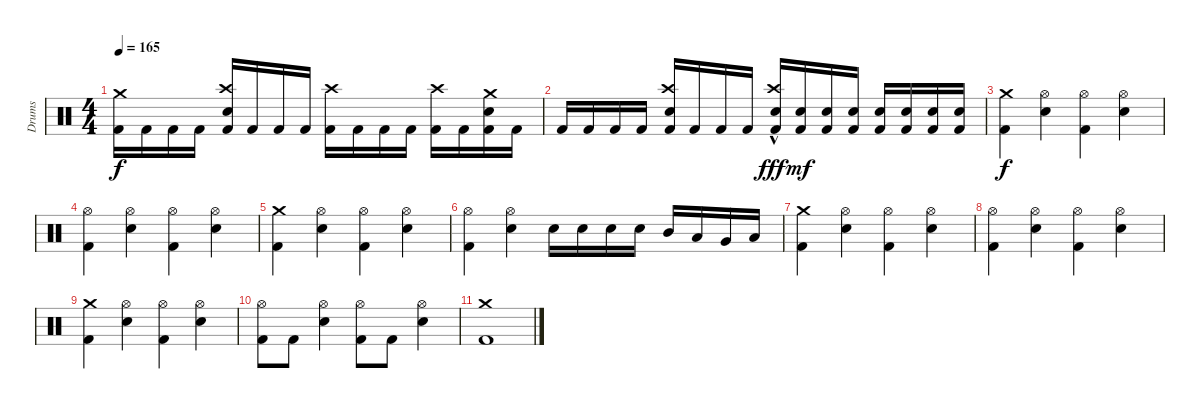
\track ("Drums" "Drums") {instrument percussion}
\staff {score}
\articulation defaults
\ts (4 4)
\tempo 165
\clef neutral
\ks c
("Crash medium (hit)" "Kick (hit) 2").16{dy f} "Kick (hit) 2".16 "Kick (hit) 2".16 "Kick (hit) 2".16 ("Crash high (hit)" "Electric Snare (hit)" "Kick (hit) 2").16 "Kick (hit) 2".16 "Kick (hit) 2".16 "Kick (hit) 2".16 ("Crash high (hit)" "Kick (hit) 2").16 "Kick (hit) 2".16 "Kick (hit) 2".16 "Kick (hit) 2".16 ("Crash high (hit)" "Kick (hit) 2").16 "Kick (hit) 2".16 ("Crash medium (hit)" "Electric Snare (hit)" "Kick (hit) 2").16 "Kick (hit) 2".16 |
"Kick (hit) 2".16 "Kick (hit) 2".16 "Kick (hit) 2".16 "Kick (hit) 2".16 ("Crash high (hit)" "Electric Snare (hit)" "Kick (hit) 2").16 "Kick (hit) 2".16 "Kick (hit) 2".16 "Kick (hit) 2".16 ("Crash high (hit)" "Electric Snare (hit)"{hac} "Kick (hit) 2").16{dy fff} ("Electric Snare (hit)" "Kick (hit) 2").16{dy mf} ("Electric Snare (hit)" "Kick (hit) 2").16 ("Electric Snare (hit)" "Kick (hit) 2").16 ("Electric Snare (hit)" "Kick (hit) 2").16 ("Electric Snare (hit)" "Kick (hit) 2").16 ("Electric Snare (hit)" "Kick (hit) 2").16 ("Electric Snare (hit)" "Kick (hit) 2").16 |
("Crash medium (hit)" "Kick (hit) 2").4{dy f} ("Hi-Hat (open)" "Electric Snare (hit)").4 ("Hi-Hat (open)" "Kick (hit) 2").4 ("Hi-Hat (open)" "Electric Snare (hit)").4 |
("Hi-Hat (open)" "Kick (hit) 2").4 ("Hi-Hat (open)" "Electric Snare (hit)").4 ("Hi-Hat (open)" "Kick (hit) 2").4 ("Hi-Hat (open)" "Electric Snare (hit)").4 |
("Crash medium (hit)" "Kick (hit) 2").4 ("Hi-Hat (open)" "Electric Snare (hit)").4 ("Hi-Hat (open)" "Kick (hit) 2").4 ("Hi-Hat (open)" "Electric Snare (hit)").4 |
("Hi-Hat (open)" "Kick (hit) 2").4 ("Hi-Hat (open)" "Electric Snare (hit)").4 "Electric Snare (hit)".16 "Electric Snare (hit)".16 "Electric Snare (hit)".16 "Electric Snare (hit)".16 "Mid Tom (hit)".16 "Low Tom (hit)".16 "Very Low Tom (hit)".16 "Low Floor Tom (hit)".16 |
("Crash medium (hit)" "Kick (hit) 2").4 ("Hi-Hat (open)" "Electric Snare (hit)").4 ("Hi-Hat (open)" "Kick (hit) 2").4 ("Hi-Hat (open)" "Electric Snare (hit)").4 |
("Hi-Hat (open)" "Kick (hit) 2").4 ("Hi-Hat (open)" "Electric Snare (hit)").4 ("Hi-Hat (open)" "Kick (hit) 2").4 ("Hi-Hat (open)" "Electric Snare (hit)").4 |
("Crash medium (hit)" "Kick (hit) 2").4 ("Hi-Hat (open)" "Electric Snare (hit)").4 ("Hi-Hat (open)" "Kick (hit) 2").4 ("Hi-Hat (open)" "Electric Snare (hit)").4 |
("Hi-Hat (open)" "Kick (hit) 2").8 "Kick (hit) 2".8 ("Hi-Hat (open)" "Electric Snare (hit)").4 ("Hi-Hat (open)" "Kick (hit) 2").8 "Kick (hit) 2".8 ("Hi-Hat (open)" "Electric Snare (hit)").4 |
("Crash medium (hit)" "Kick (hit) 2").1
